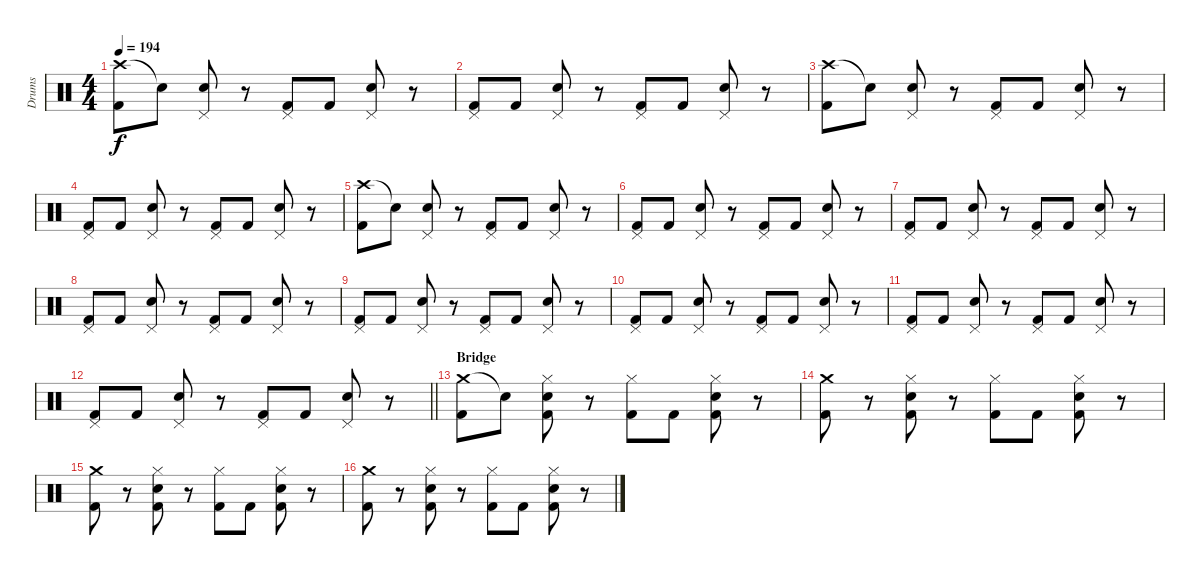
\track ("Drums" "Drums") {instrument percussion}
\staff {score}
\articulation defaults
\ts (4 4)
\tempo 194
\clef neutral
\ks c
("Crash high (hit)" "Kick (hit) 2").8{dy f} "Snare (hit)"{t}.8 ("Pedal Hi-Hat (hit)" "Snare (hit) 2").8 r.8 ("Pedal Hi-Hat (hit)" "Kick (hit) 2").8 "Kick (hit) 2".8 ("Pedal Hi-Hat (hit)" "Snare (hit) 2").8 r.8 |
("Pedal Hi-Hat (hit)" "Kick (hit) 2").8 "Kick (hit) 2".8 ("Pedal Hi-Hat (hit)" "Snare (hit) 2").8 r.8 ("Pedal Hi-Hat (hit)" "Kick (hit) 2").8 "Kick (hit) 2".8 ("Pedal Hi-Hat (hit)" "Snare (hit) 2").8 r.8 |
("Crash high (hit)" "Kick (hit) 2").8 "Snare (hit)"{t}.8 ("Pedal Hi-Hat (hit)" "Snare (hit) 2").8 r.8 ("Pedal Hi-Hat (hit)" "Kick (hit) 2").8 "Kick (hit) 2".8 ("Pedal Hi-Hat (hit)" "Snare (hit) 2").8 r.8 |
("Pedal Hi-Hat (hit)" "Kick (hit) 2").8 "Kick (hit) 2".8 ("Pedal Hi-Hat (hit)" "Snare (hit) 2").8 r.8 ("Pedal Hi-Hat (hit)" "Kick (hit) 2").8 "Kick (hit) 2".8 ("Pedal Hi-Hat (hit)" "Snare (hit) 2").8 r.8 |
("Crash high (hit)" "Kick (hit) 2").8 "Snare (hit)"{t}.8 ("Pedal Hi-Hat (hit)" "Snare (hit) 2").8 r.8 ("Pedal Hi-Hat (hit)" "Kick (hit) 2").8 "Kick (hit) 2".8 ("Pedal Hi-Hat (hit)" "Snare (hit) 2").8 r.8 |
("Pedal Hi-Hat (hit)" "Kick (hit) 2").8 "Kick (hit) 2".8 ("Pedal Hi-Hat (hit)" "Snare (hit) 2").8 r.8 ("Pedal Hi-Hat (hit)" "Kick (hit) 2").8 "Kick (hit) 2".8 ("Pedal Hi-Hat (hit)" "Snare (hit) 2").8 r.8 |
("Pedal Hi-Hat (hit)" "Kick (hit) 2").8 "Kick (hit) 2".8 ("Pedal Hi-Hat (hit)" "Snare (hit) 2").8 r.8 ("Pedal Hi-Hat (hit)" "Kick (hit) 2").8 "Kick (hit) 2".8 ("Pedal Hi-Hat (hit)" "Snare (hit) 2").8 r.8 |
("Pedal Hi-Hat (hit)" "Kick (hit) 2").8 "Kick (hit) 2".8 ("Pedal Hi-Hat (hit)" "Snare (hit) 2").8 r.8 ("Pedal Hi-Hat (hit)" "Kick (hit) 2").8 "Kick (hit) 2".8 ("Pedal Hi-Hat (hit)" "Snare (hit) 2").8 r.8 |
("Pedal Hi-Hat (hit)" "Kick (hit) 2").8 "Kick (hit) 2".8 ("Pedal Hi-Hat (hit)" "Snare (hit) 2").8 r.8 ("Pedal Hi-Hat (hit)" "Kick (hit) 2").8 "Kick (hit) 2".8 ("Pedal Hi-Hat (hit)" "Snare (hit) 2").8 r.8 |
("Pedal Hi-Hat (hit)" "Kick (hit) 2").8 "Kick (hit) 2".8 ("Pedal Hi-Hat (hit)" "Snare (hit) 2").8 r.8 ("Pedal Hi-Hat (hit)" "Kick (hit) 2").8 "Kick (hit) 2".8 ("Pedal Hi-Hat (hit)" "Snare (hit) 2").8 r.8 |
("Pedal Hi-Hat (hit)" "Kick (hit) 2").8 "Kick (hit) 2".8 ("Pedal Hi-Hat (hit)" "Snare (hit) 2").8 r.8 ("Pedal Hi-Hat (hit)" "Kick (hit) 2").8 "Kick (hit) 2".8 ("Pedal Hi-Hat (hit)" "Snare (hit) 2").8 r.8 |
\barLineRight lightlight
("Pedal Hi-Hat (hit)" "Kick (hit) 2").8 "Kick (hit) 2".8 ("Pedal Hi-Hat (hit)" "Snare (hit) 2").8 r.8 ("Pedal Hi-Hat (hit)" "Kick (hit) 2").8 "Kick (hit) 2".8 ("Pedal Hi-Hat (hit)" "Snare (hit) 2").8 r.8 |
\section ("" "Bridge")
("Crash medium (hit)" "Kick (hit) 2").8 "Snare (hit)"{t}.8 ("Hi-Hat (closed)" "Snare (hit) 2" "Kick (hit) 2").8 r.8 ("Hi-Hat (closed)" "Kick (hit) 2").8 "Kick (hit) 2".8 ("Hi-Hat (closed)" "Snare (hit) 2" "Kick (hit) 2").8 r.8 |
("Crash medium (hit)" "Kick (hit) 2").8 r.8 ("Hi-Hat (closed)" "Snare (hit) 2" "Kick (hit) 2").8 r.8 ("Hi-Hat (closed)" "Kick (hit) 2").8 "Kick (hit) 2".8 ("Hi-Hat (closed)" "Snare (hit) 2" "Kick (hit) 2").8 r.8 |
("Crash medium (hit)" "Kick (hit) 2").8 r.8 ("Hi-Hat (closed)" "Snare (hit) 2" "Kick (hit) 2").8 r.8 ("Hi-Hat (closed)" "Kick (hit) 2").8 "Kick (hit) 2".8 ("Hi-Hat (closed)" "Snare (hit) 2" "Kick (hit) 2").8 r.8 |
("Crash medium (hit)" "Kick (hit) 2").8 r.8 ("Hi-Hat (closed)" "Snare (hit) 2" "Kick (hit) 2").8 r.8 ("Hi-Hat (closed)" "Kick (hit) 2").8 "Kick (hit) 2".8 ("Hi-Hat (closed)" "Snare (hit) 2" "Kick (hit) 2").8 r.8
